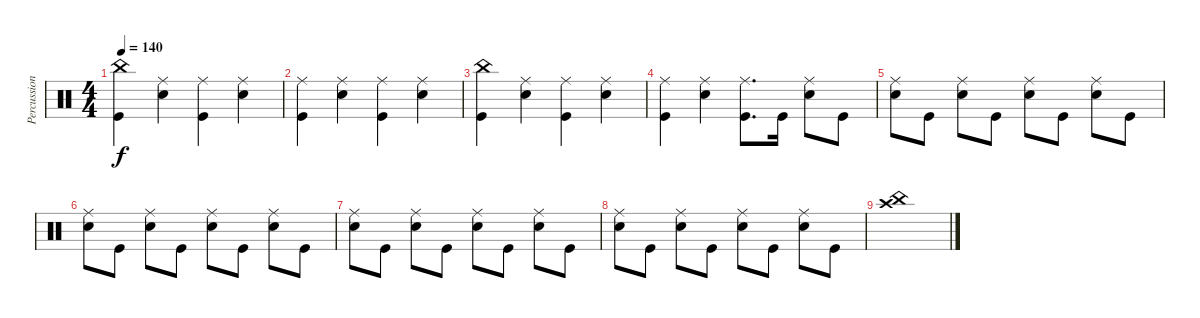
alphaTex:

\track ("Percussion" "Percussion") {instrument percussion}
\staff {score}
\articulation defaults
\ts (4 4)
\tempo 140
\clef neutral
\ks c
("China (hit)" "Kick (hit)").4{dy f} ("Ride (middle)" "Electric Snare (hit)").4 ("Ride (middle)" "Kick (hit)").4 ("Ride (middle)" "Electric Snare (hit)").4 |
("Ride (middle)" "Kick (hit)").4 ("Ride (middle)" "Electric Snare (hit)").4 ("Ride (middle)" "Kick (hit)").4 ("Ride (middle)" "Electric Snare (hit)").4 |
("China (hit)" "Kick (hit)").4 ("Ride (middle)" "Electric Snare (hit)").4 ("Ride (middle)" "Kick (hit)").4 ("Ride (middle)" "Electric Snare (hit)").4 |
("Ride (middle)" "Kick (hit)").4 ("Ride (middle)" "Electric Snare (hit)").4 ("Ride (middle)" "Kick (hit)").8{d} "Kick (hit)".16 ("Ride (middle)" "Electric Snare (hit)").8 "Kick (hit)".8 |
("Ride (middle)" "Electric Snare (hit)").8 "Kick (hit)".8 ("Ride (middle)" "Electric Snare (hit)").8 "Kick (hit)".8 ("Ride (middle)" "Electric Snare (hit)").8 "Kick (hit)".8 ("Ride (middle)" "Electric Snare (hit)").8 "Kick (hit)".8 |
("Ride (middle)" "Electric Snare (hit)").8 "Kick (hit)".8 ("Ride (middle)" "Electric Snare (hit)").8 "Kick (hit)".8 ("Ride (middle)" "Electric Snare (hit)").8 "Kick (hit)".8 ("Ride (middle)" "Electric Snare (hit)").8 "Kick (hit)".8 |
("Ride (middle)" "Electric Snare (hit)").8 "Kick (hit)".8 ("Ride (middle)" "Electric Snare (hit)").8 "Kick (hit)".8 ("Ride (middle)" "Electric Snare (hit)").8 "Kick (hit)".8 ("Ride (middle)" "Electric Snare (hit)").8 "Kick (hit)".8 |
("Ride (middle)" "Electric Snare (hit)").8 "Kick (hit)".8 ("Ride (middle)" "Electric Snare (hit)").8 "Kick (hit)".8 ("Ride (middle)" "Electric Snare (hit)").8 "Kick (hit)".8 ("Ride (middle)" "Electric Snare (hit)").8 "Kick (hit)".8 |
("Crash high (hit)" "China (hit)").1
